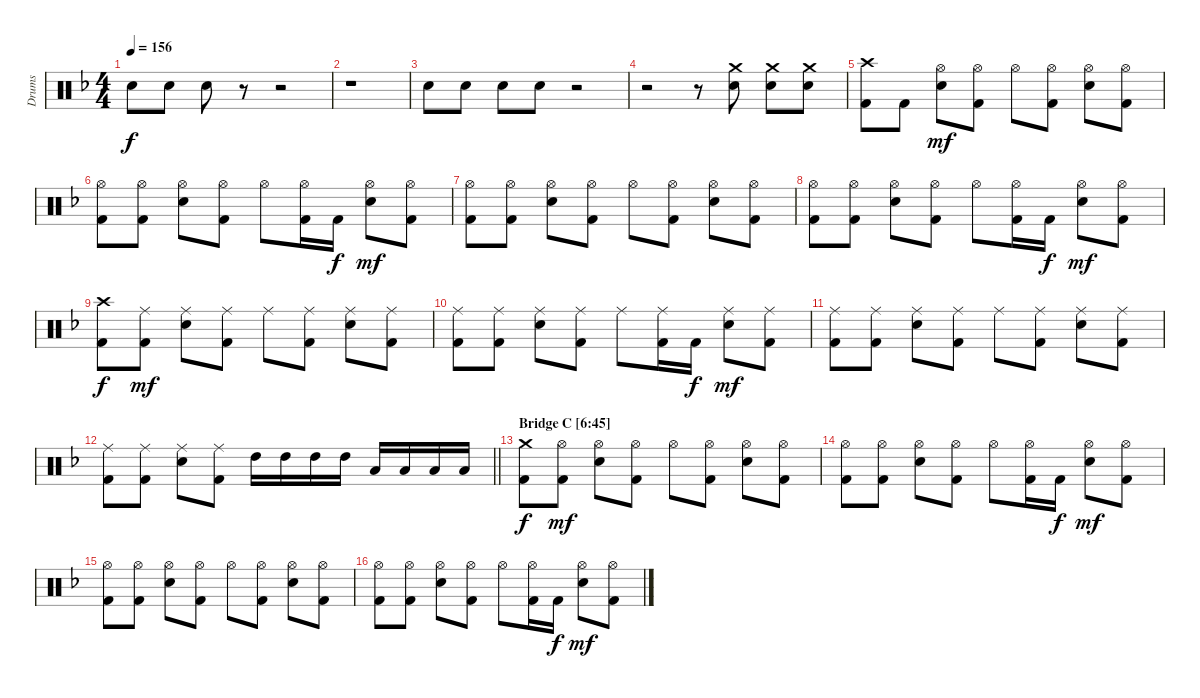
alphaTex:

\track ("Drums" "Drums") {instrument percussion}
\staff {score}
\articulation defaults
\ts (4 4)
\tempo 156
\clef neutral
\ks dminor "Snare (hit) 2".8{dy f} "Snare (hit) 2".8 "Snare (hit) 2".8
r.8 r.2 |
r.1 |
"Snare (hit) 2".8 "Snare (hit) 2".8 "Snare (hit) 2".8 "Snare (hit) 2".8 r.2 |
r.2 r.8 ("Crash medium (hit)" "Snare (hit) 2").8 ("Crash medium (hit)" "Snare (hit) 2").8 ("Crash medium (hit)" "Snare (hit) 2").8 |
("Crash high (hit)" "Kick (hit) 2").8 "Kick (hit) 2".8 ("Hi-Hat (open)" "Snare (hit) 2").8{dy mf} ("Hi-Hat (open)" "Kick (hit) 2").8 "Hi-Hat (open)".8 ("Hi-Hat (open)" "Kick (hit) 2").8 ("Hi-Hat (open)" "Snare (hit) 2").8 ("Hi-Hat (open)" "Kick (hit) 2").8 |
("Hi-Hat (open)" "Kick (hit) 2").8 ("Hi-Hat (open)" "Kick (hit) 2").8 ("Hi-Hat (open)" "Snare (hit) 2").8 ("Hi-Hat (open)" "Kick (hit) 2").8 "Hi-Hat (open)".8 ("Hi-Hat (open)" "Kick (hit) 2").16 "Kick (hit) 2".16{dy f} ("Hi-Hat (open)" "Snare (hit) 2").8{dy mf} ("Hi-Hat (open)" "Kick (hit) 2").8 |
("Hi-Hat (open)" "Kick (hit) 2").8 ("Hi-Hat (open)" "Kick (hit) 2").8 ("Hi-Hat (open)" "Snare (hit) 2").8 ("Hi-Hat (open)" "Kick (hit) 2").8 "Hi-Hat (open)".8 ("Hi-Hat (open)" "Kick (hit) 2").8 ("Hi-Hat (open)" "Snare (hit) 2").8 ("Hi-Hat (open)" "Kick (hit) 2").8 |
("Hi-Hat (open)" "Kick (hit) 2").8 ("Hi-Hat (open)" "Kick (hit) 2").8 ("Hi-Hat (open)" "Snare (hit) 2").8 ("Hi-Hat (open)" "Kick (hit) 2").8 "Hi-Hat (open)".8 ("Hi-Hat (open)" "Kick (hit) 2").16 "Kick (hit) 2".16{dy f} ("Hi-Hat (open)" "Snare (hit) 2").8{dy mf} ("Hi-Hat (open)" "Kick (hit) 2").8 |
("Crash high (hit)" "Kick (hit) 2").8{dy f} ("Ride (middle)" "Kick (hit) 2").8{dy mf} ("Ride (middle)" "Snare (hit) 2").8 ("Ride (middle)" "Kick (hit) 2").8 "Ride (middle)".8 ("Ride (middle)" "Kick (hit) 2").8 ("Ride (middle)" "Snare (hit) 2").8 ("Ride (middle)" "Kick (hit) 2").8 |
("Ride (middle)" "Kick (hit) 2").8 ("Ride (middle)" "Kick (hit) 2").8 ("Ride (middle)" "Snare (hit) 2").8 ("Ride (middle)" "Kick (hit) 2").8 "Ride (middle)".8 ("Ride (middle)" "Kick (hit) 2").16 "Kick (hit) 2".16{dy f} ("Ride (middle)" "Snare (hit) 2").8{dy mf} ("Ride (middle)" "Kick (hit) 2").8 |
("Ride (middle)" "Kick (hit) 2").8 ("Ride (middle)" "Kick (hit) 2").8 ("Ride (middle)" "Snare (hit) 2").8 ("Ride (middle)" "Kick (hit) 2").8 "Ride (middle)".8 ("Ride (middle)" "Kick (hit) 2").8 ("Ride (middle)" "Snare (hit) 2").8 ("Ride (middle)" "Kick (hit) 2").8 |
\barLineRight lightlight
("Ride (middle)" "Kick (hit) 2").8 ("Ride (middle)" "Kick (hit) 2").8 ("Ride (middle)" "Snare (hit) 2").8 ("Ride (middle)" "Kick (hit) 2").8 "High Tom (hit)".16 "High Tom (hit)".16 "High Tom (hit)".16 "High Tom (hit)".16 "Low Tom (hit)".16 "Low Tom (hit)".16 "Low Tom (hit)".16 "Low Tom (hit)".16 |
\section ("" "Bridge C [6:45]")
("Crash medium (hit)" "Kick (hit) 2").8{dy f} ("Hi-Hat (open)" "Kick (hit) 2").8{dy mf} ("Hi-Hat (open)" "Snare (hit) 2").8 ("Hi-Hat (open)" "Kick (hit) 2").8 "Hi-Hat (open)".8 ("Hi-Hat (open)" "Kick (hit) 2").8 ("Hi-Hat (open)" "Snare (hit) 2").8 ("Hi-Hat (open)" "Kick (hit) 2").8 |
("Hi-Hat (open)" "Kick (hit) 2").8 ("Hi-Hat (open)" "Kick (hit) 2").8 ("Hi-Hat (open)" "Snare (hit) 2").8 ("Hi-Hat (open)" "Kick (hit) 2").8 "Hi-Hat (open)".8 ("Hi-Hat (open)" "Kick (hit) 2").16 "Kick (hit) 2".16{dy f} ("Hi-Hat (open)" "Snare (hit) 2").8{dy mf} ("Hi-Hat (open)" "Kick (hit) 2").8 |
("Hi-Hat (open)" "Kick (hit) 2").8 ("Hi-Hat (open)" "Kick (hit) 2").8 ("Hi-Hat (open)" "Snare (hit) 2").8 ("Hi-Hat (open)" "Kick (hit) 2").8 "Hi-Hat (open)".8 ("Hi-Hat (open)" "Kick (hit) 2").8 ("Hi-Hat (open)" "Snare (hit) 2").8 ("Hi-Hat (open)" "Kick (hit) 2").8 |
("Hi-Hat (open)" "Kick (hit) 2").8 ("Hi-Hat (open)" "Kick (hit) 2").8 ("Hi-Hat (open)" "Snare (hit) 2").8 ("Hi-Hat (open)" "Kick (hit) 2").8 "Hi-Hat (open)".8 ("Hi-Hat (open)" "Kick (hit) 2").16 "Kick (hit) 2".16{dy f} ("Hi-Hat (open)" "Snare (hit) 2").8{dy mf} ("Hi-Hat (open)" "Kick (hit) 2").8
